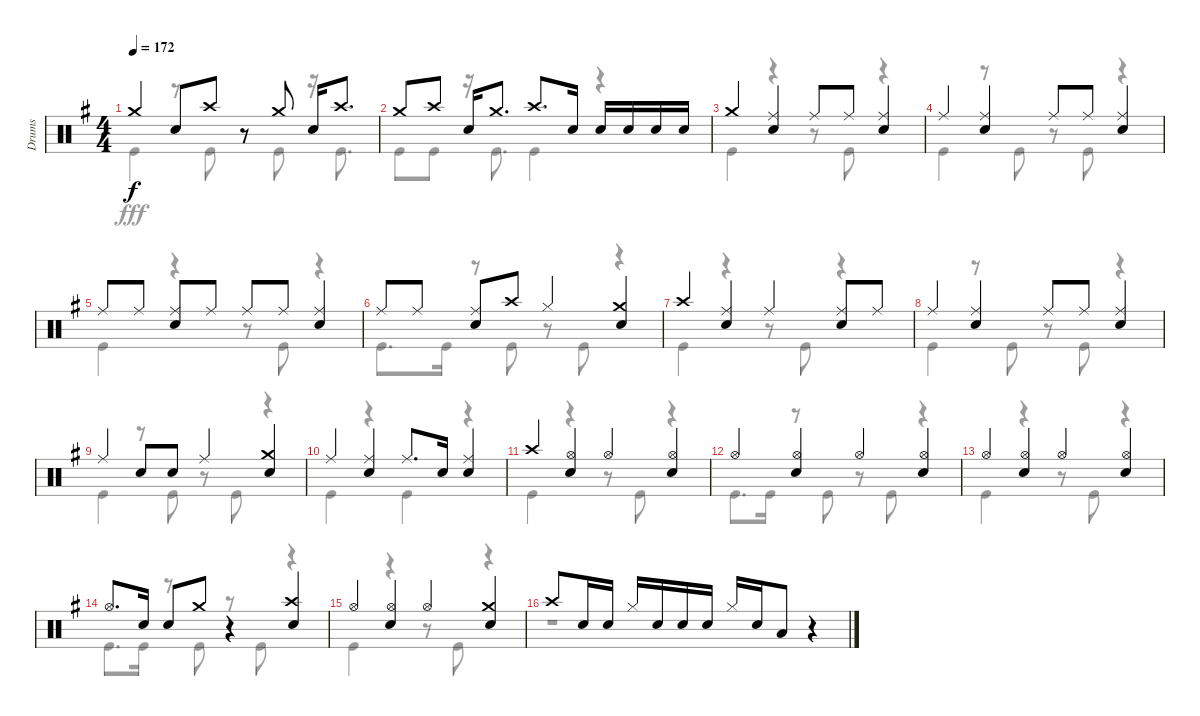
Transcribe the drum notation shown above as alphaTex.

\track ("Drums" "Drums") {instrument percussion}
\staff {score}
\articulation defaults
\voice
\ts (4 4)
\tempo 172
\clef neutral
\ks g "Crash medium (hit)".4{dy f} "Snare (hit) 2".8 "Crash high (hit)".8
r.8 "Crash medium (hit)".8 "Snare (hit) 2".16 "Crash high (hit)".8{d} |
"Crash medium (hit)".8 "Crash high (hit)".8 "Snare (hit) 2".16 "Crash medium (hit)".8{d} "Crash high (hit)".8{d} "Snare (hit) 2".16 "Snare (hit) 2".16 "Snare (hit) 2".16 "Snare (hit) 2".16 "Snare (hit) 2".16 |
"Crash medium (hit)".4 ("Ride (middle)" "Snare (hit) 2").4 "Ride (middle)".8 "Ride (middle)".8 ("Ride (middle)" "Snare (hit) 2").4 |
"Ride (middle)".4 ("Ride (middle)" "Snare (hit) 2").4 "Ride (middle)".8 "Ride (middle)".8 ("Ride (middle)" "Snare (hit) 2").4 |
"Ride (middle)".8 "Ride (middle)".8 ("Ride (middle)" "Snare (hit) 2").8 "Ride (middle)".8 "Ride (middle)".8 "Ride (middle)".8 ("Ride (middle)" "Snare (hit) 2").4 |
"Ride (middle)".8 "Ride (middle)".8 ("Ride (middle)" "Snare (hit) 2").8 "Crash high (hit)".8 "Hi-Hat (closed)".4 ("Crash medium (hit)" "Snare (hit) 2").4 |
"Crash high (hit)".4 ("Ride (middle)" "Snare (hit) 2").4 "Ride (middle)".4 ("Ride (middle)" "Snare (hit) 2").8 "Ride (middle)".8 |
"Ride (middle)".4 ("Ride (middle)" "Snare (hit) 2").4 "Ride (middle)".8 "Ride (middle)".8 ("Ride (middle)" "Snare (hit) 2").4 |
"Ride (middle)".4 "Snare (hit) 2".8 "Snare (hit) 2".8 "Ride (middle)".4 ("Crash medium (hit)" "Snare (hit) 2").4 |
"Ride (middle)".4 ("Ride (middle)" "Snare (hit) 2").4 "Ride (middle)".8{d} "Snare (hit) 2".16 ("Ride (middle)" "Snare (hit) 2").4 |
"Crash high (hit)".4 ("Hi-Hat (open)" "Snare (hit) 2").4 "Hi-Hat (open)".4 ("Hi-Hat (open)" "Snare (hit) 2").4 |
"Hi-Hat (open)".4 ("Hi-Hat (open)" "Snare (hit) 2").4 "Hi-Hat (open)".4 ("Hi-Hat (open)" "Snare (hit) 2").4 |
"Hi-Hat (open)".4 ("Hi-Hat (open)" "Snare (hit) 2").4 "Hi-Hat (open)".4 ("Hi-Hat (open)" "Snare (hit) 2").4 |
"Hi-Hat (open)".8{d} "Snare (hit) 2".16 "Snare (hit) 2".8 "Crash medium (hit)".8 r.4 ("Crash high (hit)" "Snare (hit) 2").4 |
"Hi-Hat (open)".4 ("Hi-Hat (open)" "Snare (hit) 2").4 "Hi-Hat (open)".4 ("Crash medium (hit)" "Snare (hit) 2").4 |
"Crash high (hit)".8 "Snare (hit) 2".16 "Snare (hit) 2".16 "Hi-Hat (closed)".16 "Snare (hit) 2".16 "Snare (hit) 2".16 "Snare (hit) 2".16 "Hi-Hat (closed)".16 "Snare (hit) 2".16 "Low Tom (hit)".8 r.4
\voice
\clef neutral
\ottava regular
\simile none
\ks g "Kick (hit)".4{dy fff}
r.8 "Kick (hit)".8 r.8 "Kick (hit)".8 r.16 "Kick (hit)".8{d} |
"Kick (hit)".8 "Kick (hit)".8 r.16 "Kick (hit)".8{d} "Kick (hit)".4 r.4 |
"Kick (hit)".4 r.4 r.8 "Kick (hit)".8 r.4 |
"Kick (hit)".4 r.8 "Kick (hit)".8 r.8 "Kick (hit)".8 r.4 |
"Kick (hit)".4 r.4 r.8 "Kick (hit)".8 r.4 |
"Kick (hit)".8{d} "Kick (hit)".16 r.8 "Kick (hit)".8 r.8 "Kick (hit)".8 r.4 |
"Kick (hit)".4 r.4 r.8 "Kick (hit)".8 r.4 |
"Kick (hit)".4 r.8 "Kick (hit)".8 r.8 "Kick (hit)".8 r.4 |
"Kick (hit)".4 r.8 "Kick (hit)".8 r.8 "Kick (hit)".8 r.4 |
"Kick (hit)".4 r.4 "Kick (hit)".4 r.4 |
"Kick (hit)".4 r.4 r.8 "Kick (hit)".8 r.4 |
"Kick (hit)".8{d} "Kick (hit)".16 r.8 "Kick (hit)".8 r.8 "Kick (hit)".8 r.4 |
"Kick (hit)".4 r.4 r.8 "Kick (hit)".8 r.4 |
"Kick (hit)".8{d} "Kick (hit)".16 r.8 "Kick (hit)".8 r.8 "Kick (hit)".8 r.4 |
"Kick (hit)".4 r.4 r.8 "Kick (hit)".8 r.4 |
r.1
